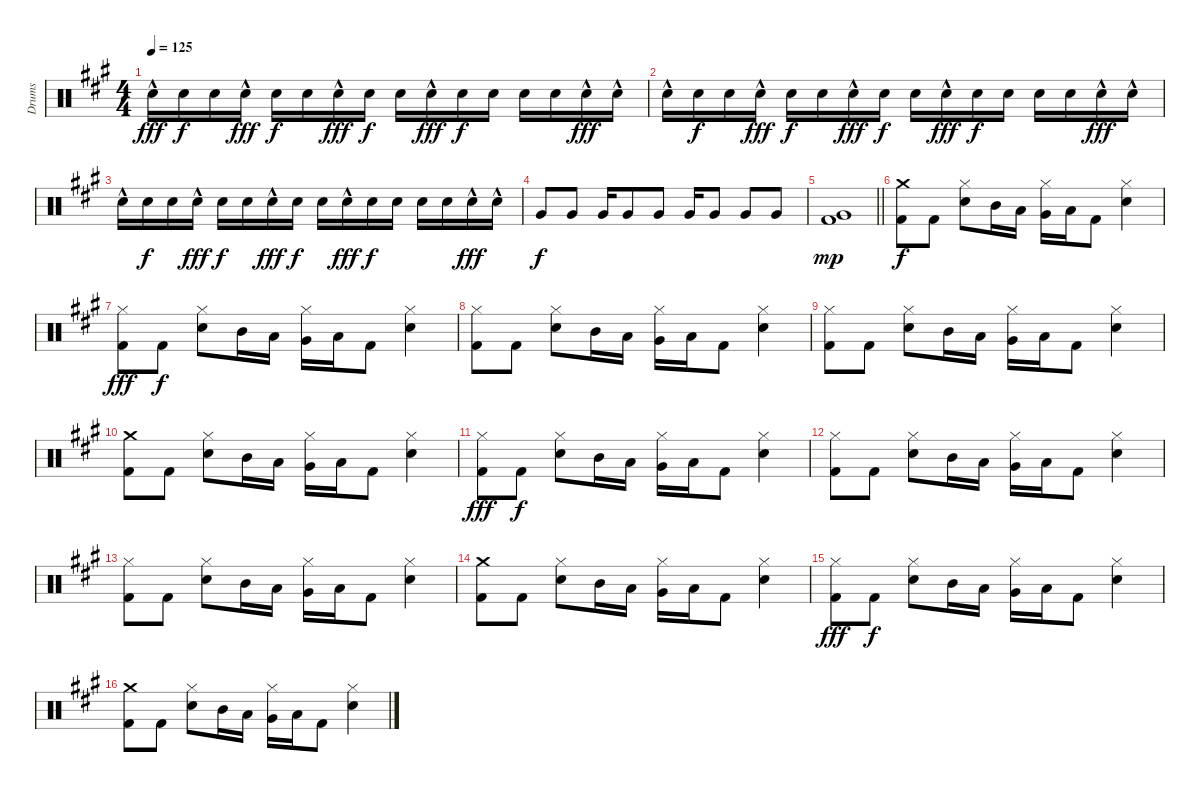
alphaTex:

\track ("Drums" "Drums") {instrument percussion}
\staff {score}
\articulation defaults
\ts (4 4)
\tempo 125
\clef neutral
\ks a "Snare (hit) 2"{hac}.16{dy fff} "Snare (hit) 2".16{dy f} "Snare (hit) 2".16 "Snare (hit) 2"{hac}.16{dy fff} "Snare (hit) 2".16{dy f} "Snare (hit) 2".16 "Snare (hit) 2"{hac}.16{dy fff} "Snare (hit) 2".16{dy f} "Snare (hit) 2".16 "Snare (hit) 2"{hac}.16{dy fff} "Snare (hit) 2".16{dy f} "Snare (hit) 2".16 "Snare (hit) 2".16 "Snare (hit) 2".16 "Snare (hit) 2"{hac}.16{dy fff} "Snare (hit) 2"{hac}.16
|
"Snare (hit) 2"{hac}.16 "Snare (hit) 2".16{dy f} "Snare (hit) 2".16 "Snare (hit) 2"{hac}.16{dy fff} "Snare (hit) 2".16{dy f} "Snare (hit) 2".16 "Snare (hit) 2"{hac}.16{dy fff} "Snare (hit) 2".16{dy f} "Snare (hit) 2".16 "Snare (hit) 2"{hac}.16{dy fff} "Snare (hit) 2".16{dy f} "Snare (hit) 2".16 "Snare (hit) 2".16 "Snare (hit) 2".16 "Snare (hit) 2"{hac}.16{dy fff} "Snare (hit) 2"{hac}.16 |
"Snare (hit) 2"{hac}.16 "Snare (hit) 2".16{dy f} "Snare (hit) 2".16 "Snare (hit) 2"{hac}.16{dy fff} "Snare (hit) 2".16{dy f} "Snare (hit) 2".16 "Snare (hit) 2"{hac}.16{dy fff} "Snare (hit) 2".16{dy f} "Snare (hit) 2".16 "Snare (hit) 2"{hac}.16{dy fff} "Snare (hit) 2".16{dy f} "Snare (hit) 2".16 "Snare (hit) 2".16 "Snare (hit) 2".16 "Snare (hit) 2"{hac}.16{dy fff} "Snare (hit) 2"{hac}.16 |
"Very Low Tom (hit)".8{dy f} "Very Low Tom (hit)".8 "Very Low Tom (hit)".16 "Very Low Tom (hit)".8 "Very Low Tom (hit)".8 "Very Low Tom (hit)".16 "Very Low Tom (hit)".8 "Very Low Tom (hit)".8 "Very Low Tom (hit)".8 |
\barLineRight lightlight
("Very Low Tom (hit)" "Kick (hit) 2").1{dy mp} |
("Crash medium (hit)" "Kick (hit) 2").8{dy f} "Kick (hit) 2".8 ("Hi-Hat (closed)" "Snare (hit) 2").8 "Mid Tom (hit)".16 "Low Tom (hit)".16 ("Hi-Hat (closed)" "Very Low Tom (hit)").16 "Low Floor Tom (hit)".16 "Kick (hit) 2".8 ("Hi-Hat (closed)" "Snare (hit) 2").4 |
("Hi-Hat (closed)" "Kick (hit) 2").8{dy fff} "Kick (hit) 2".8{dy f} ("Hi-Hat (closed)" "Snare (hit) 2").8 "Mid Tom (hit)".16 "Low Tom (hit)".16 ("Hi-Hat (closed)" "Very Low Tom (hit)").16 "Low Floor Tom (hit)".16 "Kick (hit) 2".8 ("Hi-Hat (closed)" "Snare (hit) 2").4 |
("Hi-Hat (closed)" "Kick (hit) 2").8 "Kick (hit) 2".8 ("Hi-Hat (closed)" "Snare (hit) 2").8 "Mid Tom (hit)".16 "Low Tom (hit)".16 ("Hi-Hat (closed)" "Very Low Tom (hit)").16 "Low Floor Tom (hit)".16 "Kick (hit) 2".8 ("Hi-Hat (closed)" "Snare (hit) 2").4 |
("Hi-Hat (closed)" "Kick (hit) 2").8 "Kick (hit) 2".8 ("Hi-Hat (closed)" "Snare (hit) 2").8 "Mid Tom (hit)".16 "Low Tom (hit)".16 ("Hi-Hat (closed)" "Very Low Tom (hit)").16 "Low Floor Tom (hit)".16 "Kick (hit) 2".8 ("Hi-Hat (closed)" "Snare (hit) 2").4 |
("Crash medium (hit)" "Kick (hit) 2").8 "Kick (hit) 2".8 ("Hi-Hat (closed)" "Snare (hit) 2").8 "Mid Tom (hit)".16 "Low Tom (hit)".16 ("Hi-Hat (closed)" "Very Low Tom (hit)").16 "Low Floor Tom (hit)".16 "Kick (hit) 2".8 ("Hi-Hat (closed)" "Snare (hit) 2").4 |
("Hi-Hat (closed)" "Kick (hit) 2").8{dy fff} "Kick (hit) 2".8{dy f} ("Hi-Hat (closed)" "Snare (hit) 2").8 "Mid Tom (hit)".16 "Low Tom (hit)".16 ("Hi-Hat (closed)" "Very Low Tom (hit)").16 "Low Floor Tom (hit)".16 "Kick (hit) 2".8 ("Hi-Hat (closed)" "Snare (hit) 2").4 |
("Hi-Hat (closed)" "Kick (hit) 2").8 "Kick (hit) 2".8 ("Hi-Hat (closed)" "Snare (hit) 2").8 "Mid Tom (hit)".16 "Low Tom (hit)".16 ("Hi-Hat (closed)" "Very Low Tom (hit)").16 "Low Floor Tom (hit)".16 "Kick (hit) 2".8 ("Hi-Hat (closed)" "Snare (hit) 2").4 |
("Hi-Hat (closed)" "Kick (hit) 2").8 "Kick (hit) 2".8 ("Hi-Hat (closed)" "Snare (hit) 2").8 "Mid Tom (hit)".16 "Low Tom (hit)".16 ("Hi-Hat (closed)" "Very Low Tom (hit)").16 "Low Floor Tom (hit)".16 "Kick (hit) 2".8 ("Hi-Hat (closed)" "Snare (hit) 2").4 |
("Crash medium (hit)" "Kick (hit) 2").8 "Kick (hit) 2".8 ("Hi-Hat (closed)" "Snare (hit) 2").8 "Mid Tom (hit)".16 "Low Tom (hit)".16 ("Hi-Hat (closed)" "Very Low Tom (hit)").16 "Low Floor Tom (hit)".16 "Kick (hit) 2".8 ("Hi-Hat (closed)" "Snare (hit) 2").4 |
("Hi-Hat (closed)" "Kick (hit) 2").8{dy fff} "Kick (hit) 2".8{dy f} ("Hi-Hat (closed)" "Snare (hit) 2").8 "Mid Tom (hit)".16 "Low Tom (hit)".16 ("Hi-Hat (closed)" "Very Low Tom (hit)").16 "Low Floor Tom (hit)".16 "Kick (hit) 2".8 ("Hi-Hat (closed)" "Snare (hit) 2").4 |
("Crash medium (hit)" "Kick (hit) 2").8 "Kick (hit) 2".8 ("Hi-Hat (closed)" "Snare (hit) 2").8 "Mid Tom (hit)".16 "Low Tom (hit)".16 ("Hi-Hat (closed)" "Very Low Tom (hit)").16 "Low Floor Tom (hit)".16 "Kick (hit) 2".8 ("Hi-Hat (closed)" "Snare (hit) 2").4
